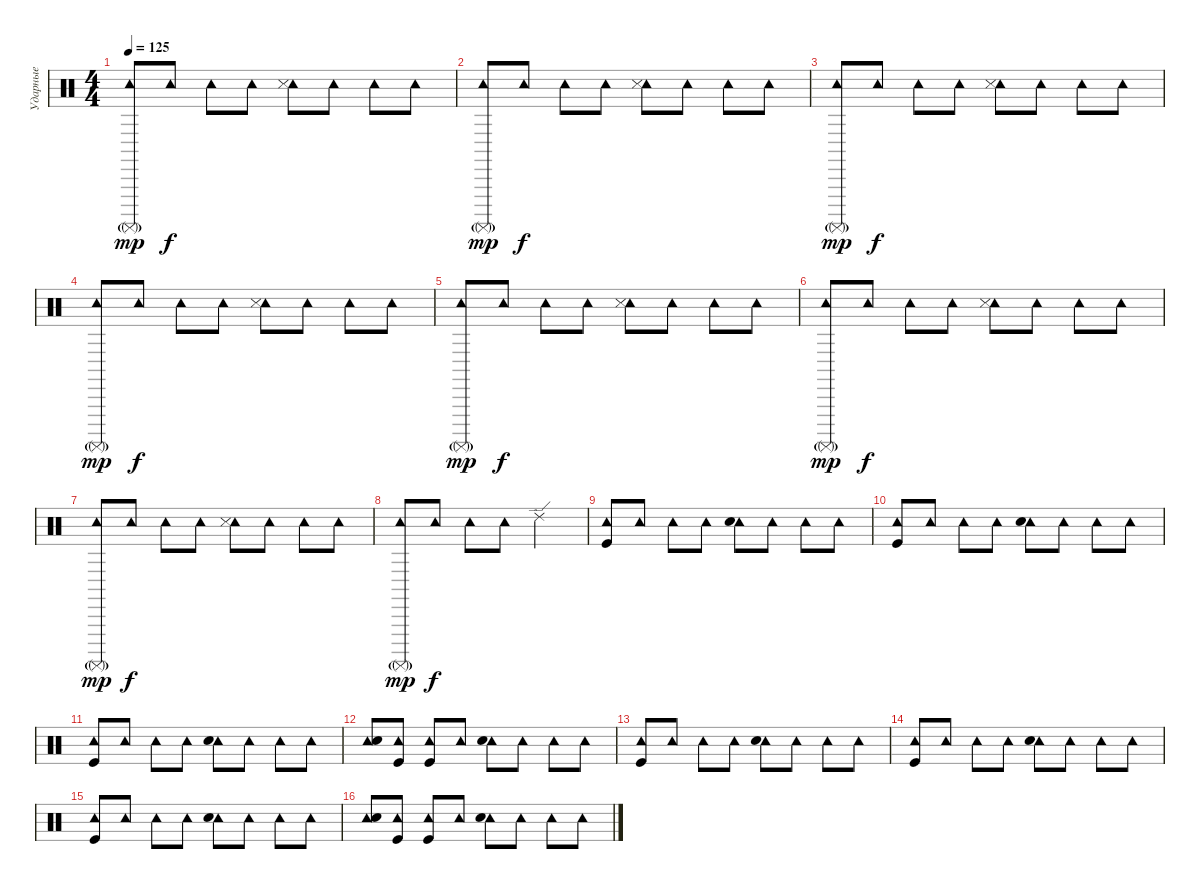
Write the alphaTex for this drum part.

\track ("Ударные" "Ударные") {instrument percussion}
\staff {score}
\articulation defaults
\ts (4 4)
\tempo 125
\clef neutral
\ks c
("Tambourine (hit)" "Surdo (mute)"{g}).8{dy mp} "Tambourine (hit)".8{dy f} "Tambourine (hit)".8 "Tambourine (hit)".8 ("Tambourine (hit)" "Snare (side stick) 3").8 "Tambourine (hit)".8 "Tambourine (hit)".8 "Tambourine (hit)".8 |
("Tambourine (hit)" "Surdo (mute)"{g}).8{dy mp} "Tambourine (hit)".8{dy f} "Tambourine (hit)".8 "Tambourine (hit)".8 ("Tambourine (hit)" "Snare (side stick) 3").8 "Tambourine (hit)".8 "Tambourine (hit)".8 "Tambourine (hit)".8 |
("Tambourine (hit)" "Surdo (mute)"{g}).8{dy mp} "Tambourine (hit)".8{dy f} "Tambourine (hit)".8 "Tambourine (hit)".8 ("Tambourine (hit)" "Snare (side stick) 3").8 "Tambourine (hit)".8 "Tambourine (hit)".8 "Tambourine (hit)".8 |
("Tambourine (hit)" "Surdo (mute)"{g}).8{dy mp} "Tambourine (hit)".8{dy f} "Tambourine (hit)".8 "Tambourine (hit)".8 ("Tambourine (hit)" "Snare (side stick) 3").8 "Tambourine (hit)".8 "Tambourine (hit)".8 "Tambourine (hit)".8 |
("Tambourine (hit)" "Surdo (mute)"{g}).8{dy mp} "Tambourine (hit)".8{dy f} "Tambourine (hit)".8 "Tambourine (hit)".8 ("Tambourine (hit)" "Snare (side stick) 3").8 "Tambourine (hit)".8 "Tambourine (hit)".8 "Tambourine (hit)".8 |
("Tambourine (hit)" "Surdo (mute)"{g}).8{dy mp} "Tambourine (hit)".8{dy f} "Tambourine (hit)".8 "Tambourine (hit)".8 ("Tambourine (hit)" "Snare (side stick) 3").8 "Tambourine (hit)".8 "Tambourine (hit)".8 "Tambourine (hit)".8 |
("Tambourine (hit)" "Surdo (mute)"{g}).8{dy mp} "Tambourine (hit)".8{dy f} "Tambourine (hit)".8 "Tambourine (hit)".8 ("Tambourine (hit)" "Snare (side stick) 3").8 "Tambourine (hit)".8 "Tambourine (hit)".8 "Tambourine (hit)".8 |
("Tambourine (hit)" "Surdo (mute)"{g}).8{dy mp} "Tambourine (hit)".8{dy f} "Tambourine (hit)".8 "Tambourine (hit)".8 "Ride (edge) 2".2 |
("Tambourine (hit)" "Kick (hit)").8 "Tambourine (hit)".8 "Tambourine (hit)".8 "Tambourine (hit)".8 ("Tambourine (hit)" "Snare (hit) 2").8 "Tambourine (hit)".8 "Tambourine (hit)".8 "Tambourine (hit)".8 |
("Tambourine (hit)" "Kick (hit)").8 "Tambourine (hit)".8 "Tambourine (hit)".8 "Tambourine (hit)".8 ("Tambourine (hit)" "Snare (hit) 2").8 "Tambourine (hit)".8 "Tambourine (hit)".8 "Tambourine (hit)".8 |
("Tambourine (hit)" "Kick (hit)").8 "Tambourine (hit)".8 "Tambourine (hit)".8 "Tambourine (hit)".8 ("Tambourine (hit)" "Snare (hit) 2").8 "Tambourine (hit)".8 "Tambourine (hit)".8 "Tambourine (hit)".8 |
("Tambourine (hit)" "Snare (hit) 2").8 ("Tambourine (hit)" "Kick (hit)").8 ("Tambourine (hit)" "Kick (hit)").8 "Tambourine (hit)".8 ("Tambourine (hit)" "Snare (hit) 2").8 "Tambourine (hit)".8 "Tambourine (hit)".8 "Tambourine (hit)".8 |
("Tambourine (hit)" "Kick (hit)").8 "Tambourine (hit)".8 "Tambourine (hit)".8 "Tambourine (hit)".8 ("Tambourine (hit)" "Snare (hit) 2").8 "Tambourine (hit)".8 "Tambourine (hit)".8 "Tambourine (hit)".8 |
("Tambourine (hit)" "Kick (hit)").8 "Tambourine (hit)".8 "Tambourine (hit)".8 "Tambourine (hit)".8 ("Tambourine (hit)" "Snare (hit) 2").8 "Tambourine (hit)".8 "Tambourine (hit)".8 "Tambourine (hit)".8 |
("Tambourine (hit)" "Kick (hit)").8 "Tambourine (hit)".8 "Tambourine (hit)".8 "Tambourine (hit)".8 ("Tambourine (hit)" "Snare (hit) 2").8 "Tambourine (hit)".8 "Tambourine (hit)".8 "Tambourine (hit)".8 |
("Tambourine (hit)" "Snare (hit) 2").8 ("Tambourine (hit)" "Kick (hit)").8 ("Tambourine (hit)" "Kick (hit)").8 "Tambourine (hit)".8 ("Tambourine (hit)" "Snare (hit) 2").8 "Tambourine (hit)".8 "Tambourine (hit)".8 "Tambourine (hit)".8
